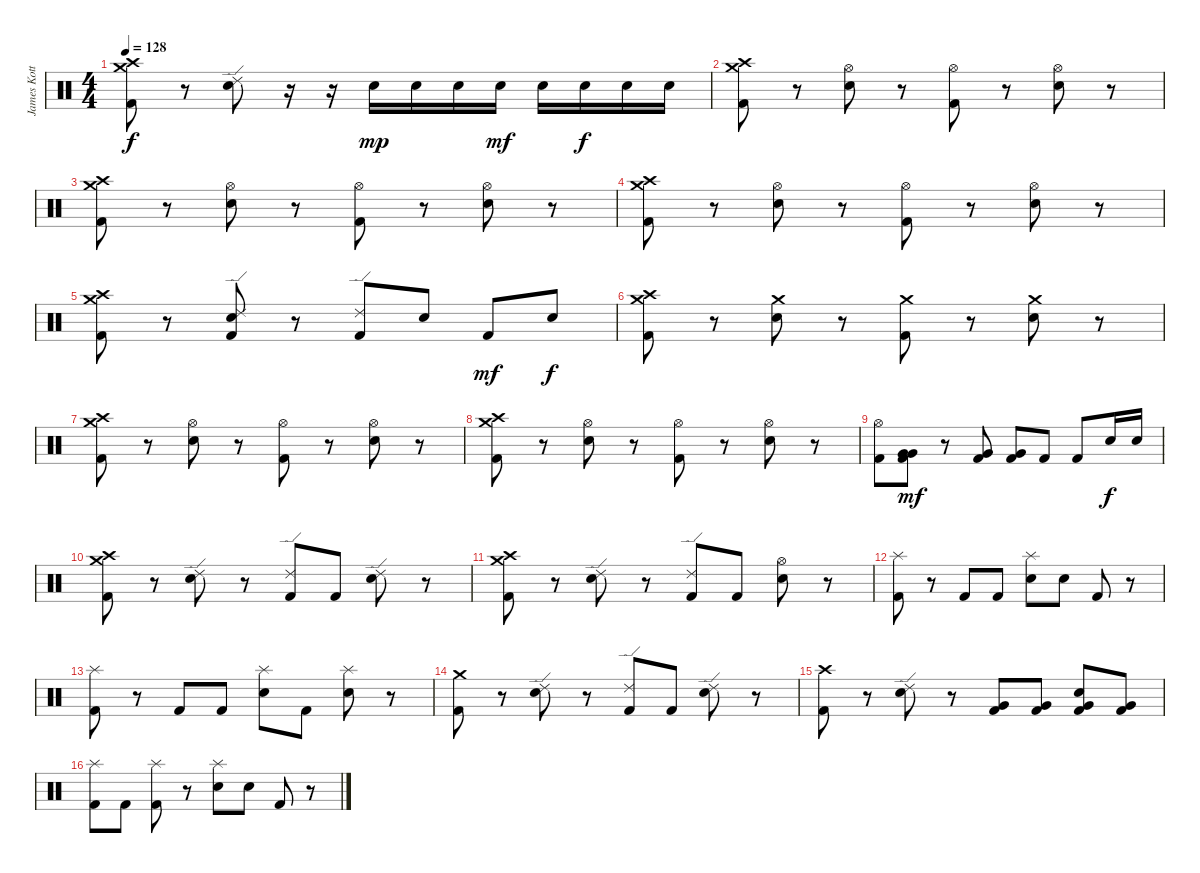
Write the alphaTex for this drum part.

\track ("James Kottak" "James Kott") {instrument percussion}
\staff {score}
\articulation defaults
\ts (4 4)
\tempo 128
\clef neutral
\ks c
("Crash high (hit)" "Crash medium (hit)" "Kick (hit) 2").8{dy f} r.8 ("Ride (edge) 2" "Electric Snare (hit)").8 r.16 r.16 "Electric Snare (hit)".16{dy mp} "Electric Snare (hit)".16 "Electric Snare (hit)".16 "Electric Snare (hit)".16{dy mf} "Electric Snare (hit)".16 "Electric Snare (hit)".16{dy f} "Electric Snare (hit)".16 "Electric Snare (hit)".16 |
("Crash high (hit)" "Crash medium (hit)" "Kick (hit) 2").8 r.8 ("Hi-Hat (open)" "Electric Snare (hit)").8 r.8 ("Hi-Hat (open)" "Kick (hit) 2").8 r.8 ("Hi-Hat (open)" "Electric Snare (hit)").8 r.8 |
("Crash high (hit)" "Crash medium (hit)" "Kick (hit) 2").8 r.8 ("Hi-Hat (open)" "Electric Snare (hit)").8 r.8 ("Hi-Hat (open)" "Kick (hit) 2").8 r.8 ("Hi-Hat (open)" "Electric Snare (hit)").8 r.8 |
("Crash high (hit)" "Crash medium (hit)" "Kick (hit) 2").8 r.8 ("Hi-Hat (open)" "Electric Snare (hit)").8 r.8 ("Hi-Hat (open)" "Kick (hit) 2").8 r.8 ("Hi-Hat (open)" "Electric Snare (hit)").8 r.8 |
("Crash high (hit)" "Crash medium (hit)" "Kick (hit) 2").8 r.8 ("Ride (edge) 2" "Electric Snare (hit)" "Kick (hit) 2").8 r.8 ("Ride (edge) 2" "Kick (hit) 2").8 "Electric Snare (hit)".8 "Kick (hit) 2".8{dy mf} "Electric Snare (hit)".8{dy f} |
("Crash high (hit)" "Crash medium (hit)" "Kick (hit) 2").8 r.8 ("Crash medium (hit)" "Electric Snare (hit)").8 r.8 ("Crash medium (hit)" "Kick (hit) 2").8 r.8 ("Crash medium (hit)" "Electric Snare (hit)").8 r.8 |
("Crash high (hit)" "Crash medium (hit)" "Kick (hit) 2").8 r.8 ("Hi-Hat (open)" "Electric Snare (hit)").8 r.8 ("Hi-Hat (open)" "Kick (hit) 2").8 r.8 ("Hi-Hat (open)" "Electric Snare (hit)").8 r.8 |
("Crash high (hit)" "Crash medium (hit)" "Kick (hit) 2").8 r.8 ("Hi-Hat (open)" "Electric Snare (hit)").8 r.8 ("Hi-Hat (open)" "Kick (hit) 2").8 r.8 ("Hi-Hat (open)" "Electric Snare (hit)").8 r.8 |
("Hi-Hat (open)" "Kick (hit) 2").8 ("Very Low Tom (hit)" "Very Low Tom (hit)" "Kick (hit) 2").8{bd 120 dy mf} r.8 ("Very Low Tom (hit)" "Kick (hit) 2").8 ("Very Low Tom (hit)" "Kick (hit) 2").8 "Kick (hit) 2".8 "Kick (hit) 2".8 "Electric Snare (hit)".16{dy f} "Electric Snare (hit)".16 |
("Crash high (hit)" "Crash medium (hit)" "Kick (hit) 2").8 r.8 ("Ride (edge) 2" "Electric Snare (hit)").8 r.8 ("Ride (edge) 2" "Kick (hit) 2").8 "Kick (hit) 2".8 ("Ride (edge) 2" "Electric Snare (hit)").8 r.8 |
("Crash high (hit)" "Crash medium (hit)" "Kick (hit) 2").8 r.8 ("Ride (edge) 2" "Electric Snare (hit)").8 r.8 ("Ride (edge) 2" "Kick (hit) 2").8 "Kick (hit) 2".8 ("Hi-Hat (open)" "Electric Snare (hit)").8 r.8 |
("Splash (hit)" "Kick (hit) 2").8 r.8 "Kick (hit) 2".8 "Kick (hit) 2".8 ("Splash (hit)" "Electric Snare (hit)").8 "Electric Snare (hit)".8 "Kick (hit) 2".8 r.8 |
("Splash (hit)" "Kick (hit) 2").8 r.8 "Kick (hit) 2".8 "Kick (hit) 2".8 ("Splash (hit)" "Electric Snare (hit)").8 "Kick (hit) 2".8 ("Splash (hit)" "Electric Snare (hit)").8 r.8 |
("Crash medium (hit)" "Kick (hit) 2").8 r.8 ("Ride (edge) 2" "Electric Snare (hit)").8 r.8 ("Ride (edge) 2" "Kick (hit) 2").8 "Kick (hit) 2".8 ("Ride (edge) 2" "Electric Snare (hit)").8 r.8 |
("Crash high (hit)" "Kick (hit) 2").8 r.8 ("Ride (edge) 2" "Electric Snare (hit)").8 r.8 ("Very Low Tom (hit)" "Kick (hit) 2").8 ("Very Low Tom (hit)" "Kick (hit) 2").8 ("Electric Snare (hit)" "Very Low Tom (hit)" "Kick (hit) 2").8 ("Very Low Tom (hit)" "Kick (hit) 2").8 |
("Splash (hit)" "Kick (hit) 2").8 "Kick (hit) 2".8 ("Splash (hit)" "Kick (hit) 2").8 r.8 ("Splash (hit)" "Electric Snare (hit)").8 "Electric Snare (hit)".8 "Kick (hit) 2".8 r.8
